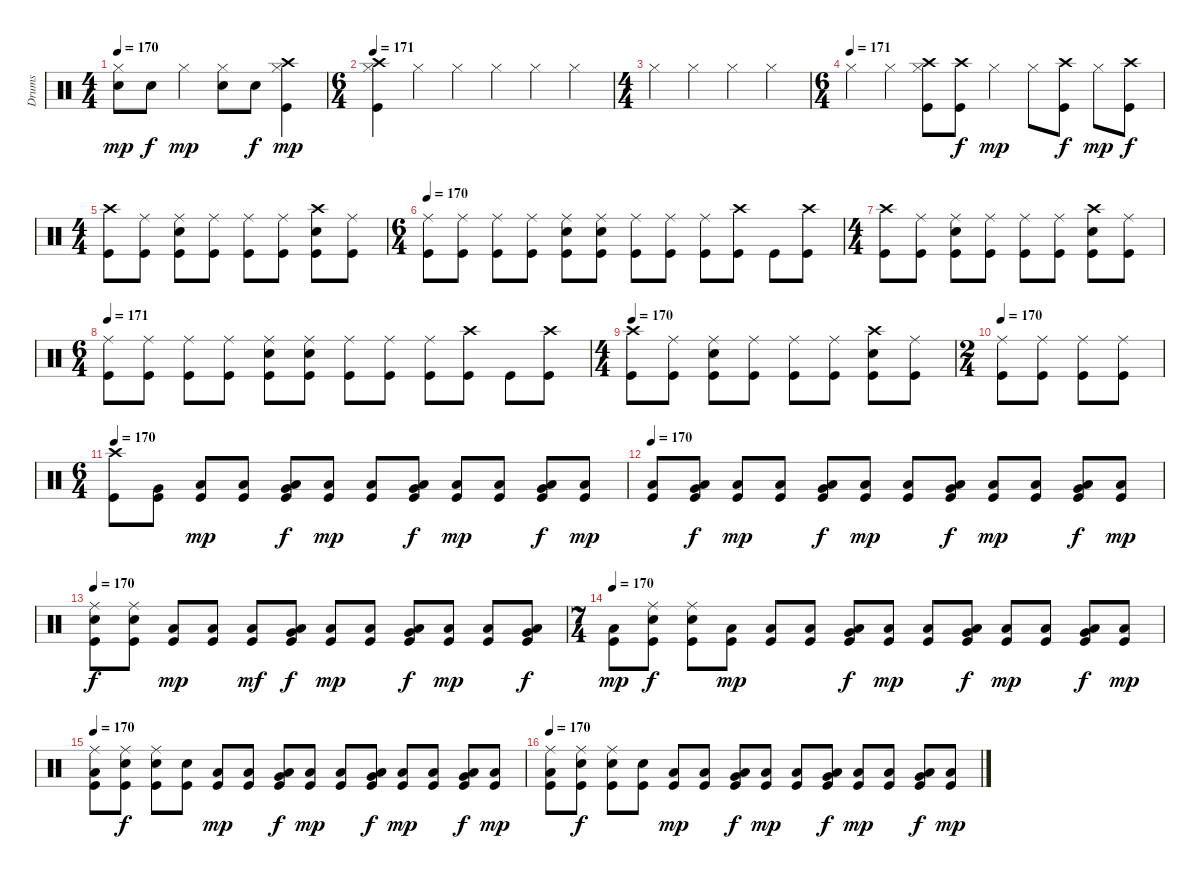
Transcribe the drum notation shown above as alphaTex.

\track ("Drums" "Drums") {instrument percussion}
\staff {score}
\articulation defaults
\ts (4 4)
\tempo 170
\clef neutral
\ks c
("Hi-Hat (closed)" "Electric Snare (hit)").8{dy mp} "Electric Snare (hit)".8{dy f} "Hi-Hat (closed)".4{dy mp} ("Hi-Hat (closed)" "Electric Snare (hit)").8 "Electric Snare (hit)".8{dy f} ("Crash high (hit)" "Hi-Hat (closed)" "Kick (hit)").4{dy mp} |
\ts (6 4)
\tempo 171
("Crash high (hit)" "Hi-Hat (closed)" "Kick (hit)").4 "Hi-Hat (closed)".4 "Hi-Hat (closed)".4 "Hi-Hat (closed)".4 "Hi-Hat (closed)".4 "Hi-Hat (closed)".4 |
\ts (4 4)
"Hi-Hat (closed)".4 "Hi-Hat (closed)".4 "Hi-Hat (closed)".4 "Hi-Hat (closed)".4 |
\ts (6 4)
\tempo (171)
"Hi-Hat (closed)".4 "Hi-Hat (closed)".4 ("Crash high (hit)" "Hi-Hat (closed)" "Kick (hit)").8 ("Crash high (hit)" "Kick (hit)").8{dy f} "Hi-Hat (closed)".4{dy mp} "Hi-Hat (closed)".8 ("Crash high (hit)" "Kick (hit)").8{dy f} "Hi-Hat (closed)".8{dy mp} ("Crash high (hit)" "Kick (hit)").8{dy f} |
\ts (4 4)
("Crash high (hit)" "Kick (hit)").8 ("Ride (middle)" "Kick (hit)").8 ("Ride (middle)" "Electric Snare (hit)" "Kick (hit)").8 ("Ride (middle)" "Kick (hit)").8 ("Ride (middle)" "Kick (hit)").8 ("Ride (middle)" "Kick (hit)").8 ("Crash high (hit)" "Electric Snare (hit)" "Kick (hit)").8 ("Ride (middle)" "Kick (hit)").8 |
\ts (6 4)
\tempo 171
\tempo 170
("Ride (middle)" "Kick (hit)").8 ("Ride (middle)" "Kick (hit)").8 ("Ride (middle)" "Kick (hit)").8 ("Ride (middle)" "Kick (hit)").8 ("Ride (middle)" "Electric Snare (hit)" "Kick (hit)").8 ("Ride (middle)" "Electric Snare (hit)" "Kick (hit)").8 ("Ride (middle)" "Kick (hit)").8 ("Ride (middle)" "Kick (hit)").8 ("Ride (middle)" "Kick (hit)").8 ("Crash high (hit)" "Kick (hit)").8 "Kick (hit)".8 ("Crash high (hit)" "Kick (hit)").8 |
\ts (4 4)
("Crash high (hit)" "Kick (hit)").8 ("Ride (middle)" "Kick (hit)").8 ("Ride (middle)" "Electric Snare (hit)" "Kick (hit)").8 ("Ride (middle)" "Kick (hit)").8 ("Ride (middle)" "Kick (hit)").8 ("Ride (middle)" "Kick (hit)").8 ("Crash high (hit)" "Electric Snare (hit)" "Kick (hit)").8 ("Ride (middle)" "Kick (hit)").8 |
\ts (6 4)
\tempo 170
\tempo 171
("Ride (middle)" "Kick (hit)").8 ("Ride (middle)" "Kick (hit)").8 ("Ride (middle)" "Kick (hit)").8 ("Ride (middle)" "Kick (hit)").8 ("Ride (middle)" "Electric Snare (hit)" "Kick (hit)").8 ("Ride (middle)" "Electric Snare (hit)" "Kick (hit)").8 ("Ride (middle)" "Kick (hit)").8 ("Ride (middle)" "Kick (hit)").8 ("Ride (middle)" "Kick (hit)").8 ("Crash high (hit)" "Kick (hit)").8 "Kick (hit)".8 ("Crash high (hit)" "Kick (hit)").8 |
\ts (4 4)
\tempo 170
("Crash high (hit)" "Kick (hit)").8 ("Ride (middle)" "Kick (hit)").8 ("Ride (middle)" "Electric Snare (hit)" "Kick (hit)").8 ("Ride (middle)" "Kick (hit)").8 ("Ride (middle)" "Kick (hit)").8 ("Ride (middle)" "Kick (hit)").8 ("Crash high (hit)" "Electric Snare (hit)" "Kick (hit)").8 ("Ride (middle)" "Kick (hit)").8 |
\ts (2 4)
\tempo 170
("Ride (middle)" "Kick (hit)").8 ("Ride (middle)" "Kick (hit)").8 ("Ride (middle)" "Kick (hit)").8 ("Ride (middle)" "Kick (hit)").8 |
\ts (6 4)
\tempo 170
("Crash high (hit)" "Kick (hit)").8 ("Very Low Tom (hit)" "Kick (hit)").8 ("Low Floor Tom (hit)" "Kick (hit)").8{dy mp} ("Low Floor Tom (hit)" "Kick (hit)").8 ("Very Low Tom (hit)" "Low Floor Tom (hit)" "Kick (hit)").8{dy f} ("Low Floor Tom (hit)" "Kick (hit)").8{dy mp} ("Low Floor Tom (hit)" "Kick (hit)").8 ("Very Low Tom (hit)" "Low Floor Tom (hit)" "Kick (hit)").8{dy f} ("Low Floor Tom (hit)" "Kick (hit)").8{dy mp} ("Low Floor Tom (hit)" "Kick (hit)").8 ("Very Low Tom (hit)" "Low Floor Tom (hit)" "Kick (hit)").8{dy f} ("Low Floor Tom (hit)" "Kick (hit)").8{dy mp} |
\tempo 170
("Low Floor Tom (hit)" "Kick (hit)").8 ("Very Low Tom (hit)" "Low Floor Tom (hit)" "Kick (hit)").8{dy f} ("Low Floor Tom (hit)" "Kick (hit)").8{dy mp} ("Low Floor Tom (hit)" "Kick (hit)").8 ("Very Low Tom (hit)" "Low Floor Tom (hit)" "Kick (hit)").8{dy f} ("Low Floor Tom (hit)" "Kick (hit)").8{dy mp} ("Low Floor Tom (hit)" "Kick (hit)").8 ("Very Low Tom (hit)" "Low Floor Tom (hit)" "Kick (hit)").8{dy f} ("Low Floor Tom (hit)" "Kick (hit)").8{dy mp} ("Low Floor Tom (hit)" "Kick (hit)").8 ("Very Low Tom (hit)" "Low Floor Tom (hit)" "Kick (hit)").8{dy f} ("Low Floor Tom (hit)" "Kick (hit)").8{dy mp} |
\tempo 170
("Ride (middle)" "Electric Snare (hit)" "Kick (hit)").8{dy f} ("Ride (middle)" "Electric Snare (hit)" "Kick (hit)").8 ("Low Floor Tom (hit)" "Kick (hit)").8{dy mp} ("Low Floor Tom (hit)" "Kick (hit)").8 ("Low Floor Tom (hit)" "Kick (hit)").8{dy mf} ("Very Low Tom (hit)" "Low Floor Tom (hit)" "Kick (hit)").8{dy f} ("Low Floor Tom (hit)" "Kick (hit)").8{dy mp} ("Low Floor Tom (hit)" "Kick (hit)").8 ("Very Low Tom (hit)" "Low Floor Tom (hit)" "Kick (hit)").8{dy f} ("Low Floor Tom (hit)" "Kick (hit)").8{dy mp} ("Low Floor Tom (hit)" "Kick (hit)").8 ("Very Low Tom (hit)" "Low Floor Tom (hit)" "Kick (hit)").8{dy f} |
\ts (7 4)
\tempo 170
("Low Floor Tom (hit)" "Kick (hit)").8{dy mp} ("Ride (middle)" "Electric Snare (hit)" "Kick (hit)").8{dy f} ("Ride (middle)" "Electric Snare (hit)" "Kick (hit)").8 ("Low Floor Tom (hit)" "Kick (hit)").8{dy mp} ("Low Floor Tom (hit)" "Kick (hit)").8 ("Low Floor Tom (hit)" "Kick (hit)").8 ("Very Low Tom (hit)" "Low Floor Tom (hit)" "Kick (hit)").8{dy f} ("Low Floor Tom (hit)" "Kick (hit)").8{dy mp} ("Low Floor Tom (hit)" "Kick (hit)").8 ("Very Low Tom (hit)" "Low Floor Tom (hit)" "Kick (hit)").8{dy f} ("Low Floor Tom (hit)" "Kick (hit)").8{dy mp} ("Low Floor Tom (hit)" "Kick (hit)").8 ("Very Low Tom (hit)" "Low Floor Tom (hit)" "Kick (hit)").8{dy f} ("Low Floor Tom (hit)" "Kick (hit)").8{dy mp} |
\tempo 170
("Ride (middle)" "Low Floor Tom (hit)" "Kick (hit)").8 ("Ride (middle)" "Electric Snare (hit)" "Kick (hit)").8{dy f} ("Ride (middle)" "Electric Snare (hit)" "Kick (hit)").8 ("Electric Snare (hit)" "Kick (hit)").8 ("Low Floor Tom (hit)" "Kick (hit)").8{dy mp} ("Low Floor Tom (hit)" "Kick (hit)").8 ("Very Low Tom (hit)" "Low Floor Tom (hit)" "Kick (hit)").8{dy f} ("Low Floor Tom (hit)" "Kick (hit)").8{dy mp} ("Low Floor Tom (hit)" "Kick (hit)").8 ("Very Low Tom (hit)" "Low Floor Tom (hit)" "Kick (hit)").8{dy f} ("Low Floor Tom (hit)" "Kick (hit)").8{dy mp} ("Low Floor Tom (hit)" "Kick (hit)").8 ("Very Low Tom (hit)" "Low Floor Tom (hit)" "Kick (hit)").8{dy f} ("Low Floor Tom (hit)" "Kick (hit)").8{dy mp} |
\tempo 170
("Ride (middle)" "Low Floor Tom (hit)" "Kick (hit)").8 ("Ride (middle)" "Electric Snare (hit)" "Kick (hit)").8{dy f} ("Ride (middle)" "Electric Snare (hit)" "Kick (hit)").8 ("Electric Snare (hit)" "Kick (hit)").8 ("Low Floor Tom (hit)" "Kick (hit)").8{dy mp} ("Low Floor Tom (hit)" "Kick (hit)").8 ("Very Low Tom (hit)" "Low Floor Tom (hit)" "Kick (hit)").8{dy f} ("Low Floor Tom (hit)" "Kick (hit)").8{dy mp} ("Low Floor Tom (hit)" "Kick (hit)").8 ("Very Low Tom (hit)" "Low Floor Tom (hit)" "Kick (hit)").8{dy f} ("Low Floor Tom (hit)" "Kick (hit)").8{dy mp} ("Low Floor Tom (hit)" "Kick (hit)").8 ("Very Low Tom (hit)" "Low Floor Tom (hit)" "Kick (hit)").8{dy f} ("Low Floor Tom (hit)" "Kick (hit)").8{dy mp}
